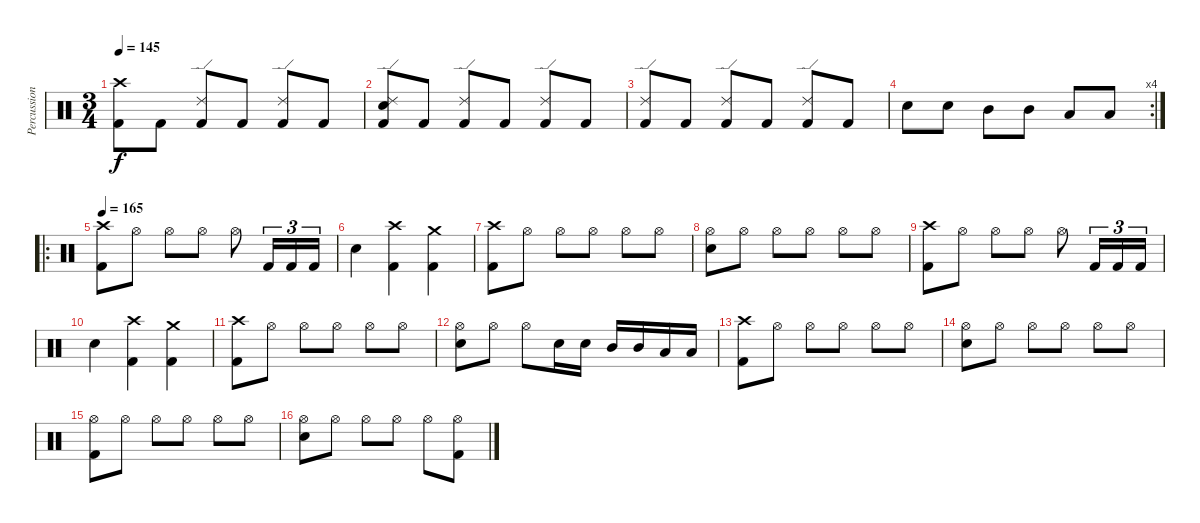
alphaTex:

\track ("Percussion" "Percussion") {instrument percussion}
\staff {score}
\articulation defaults
\ts (3 4)
\tempo 145
\clef neutral
\ks c
("Crash high (hit)" "Kick (hit) 2").8{dy f} "Kick (hit) 2".8 ("Ride (edge) 2" "Kick (hit) 2").8 "Kick (hit) 2".8 ("Ride (edge) 2" "Kick (hit) 2").8 "Kick (hit) 2".8 |
("Ride (edge) 2" "Electric Snare (hit)" "Kick (hit) 2").8 "Kick (hit) 2".8 ("Ride (edge) 2" "Kick (hit) 2").8 "Kick (hit) 2".8 ("Ride (edge) 2" "Kick (hit) 2").8 "Kick (hit) 2".8 |
("Ride (edge) 2" "Kick (hit) 2").8 "Kick (hit) 2".8 ("Ride (edge) 2" "Kick (hit) 2").8 "Kick (hit) 2".8 ("Ride (edge) 2" "Kick (hit) 2").8 "Kick (hit) 2".8 |
\rc 4 "Electric Snare (hit)".8 "Electric Snare (hit)".8 "Mid Tom (hit)".8 "Mid Tom (hit)".8 "Low Tom (hit)".8 "Low Tom (hit)".8
|
\ro
\tempo 165
("Crash high (hit)" "Kick (hit) 2").8 "Hi-Hat (open)".8 "Hi-Hat (open)".8 "Hi-Hat (open)".8 "Hi-Hat (open)".8 "Kick (hit) 2".16{tu (3 2)} "Kick (hit) 2".16{tu (3 2)} "Kick (hit) 2".16{tu (3 2)} |
"Electric Snare (hit)".4 ("Crash high (hit)" "Kick (hit) 2").4 ("Crash medium (hit)" "Kick (hit) 2").4 |
("Crash high (hit)" "Kick (hit) 2").8 "Hi-Hat (open)".8 "Hi-Hat (open)".8 "Hi-Hat (open)".8 "Hi-Hat (open)".8 "Hi-Hat (open)".8 |
("Hi-Hat (open)" "Electric Snare (hit)").8 "Hi-Hat (open)".8 "Hi-Hat (open)".8 "Hi-Hat (open)".8 "Hi-Hat (open)".8 "Hi-Hat (open)".8 |
("Crash high (hit)" "Kick (hit) 2").8 "Hi-Hat (open)".8 "Hi-Hat (open)".8 "Hi-Hat (open)".8 "Hi-Hat (open)".8 "Kick (hit) 2".16{tu (3 2)} "Kick (hit) 2".16{tu (3 2)} "Kick (hit) 2".16{tu (3 2)} |
"Electric Snare (hit)".4 ("Crash high (hit)" "Kick (hit) 2").4 ("Crash medium (hit)" "Kick (hit) 2").4 |
("Crash high (hit)" "Kick (hit) 2").8 "Hi-Hat (open)".8 "Hi-Hat (open)".8 "Hi-Hat (open)".8 "Hi-Hat (open)".8 "Hi-Hat (open)".8 |
("Hi-Hat (open)" "Electric Snare (hit)").8 "Hi-Hat (open)".8 "Hi-Hat (open)".8 "Electric Snare (hit)".16 "Electric Snare (hit)".16 "Mid Tom (hit)".16 "Mid Tom (hit)".16 "Low Tom (hit)".16 "Low Tom (hit)".16 |
("Crash high (hit)" "Kick (hit) 2").8 "Hi-Hat (open)".8 "Hi-Hat (open)".8 "Hi-Hat (open)".8 "Hi-Hat (open)".8 "Hi-Hat (open)".8 |
("Hi-Hat (open)" "Electric Snare (hit)").8 "Hi-Hat (open)".8 "Hi-Hat (open)".8 "Hi-Hat (open)".8 "Hi-Hat (open)".8 "Hi-Hat (open)".8 |
("Hi-Hat (open)" "Kick (hit) 2").8 "Hi-Hat (open)".8 "Hi-Hat (open)".8 "Hi-Hat (open)".8 "Hi-Hat (open)".8 "Hi-Hat (open)".8 |
("Hi-Hat (open)" "Electric Snare (hit)").8 "Hi-Hat (open)".8 "Hi-Hat (open)".8 "Hi-Hat (open)".8 "Hi-Hat (open)".8 ("Hi-Hat (open)" "Kick (hit) 2").8
